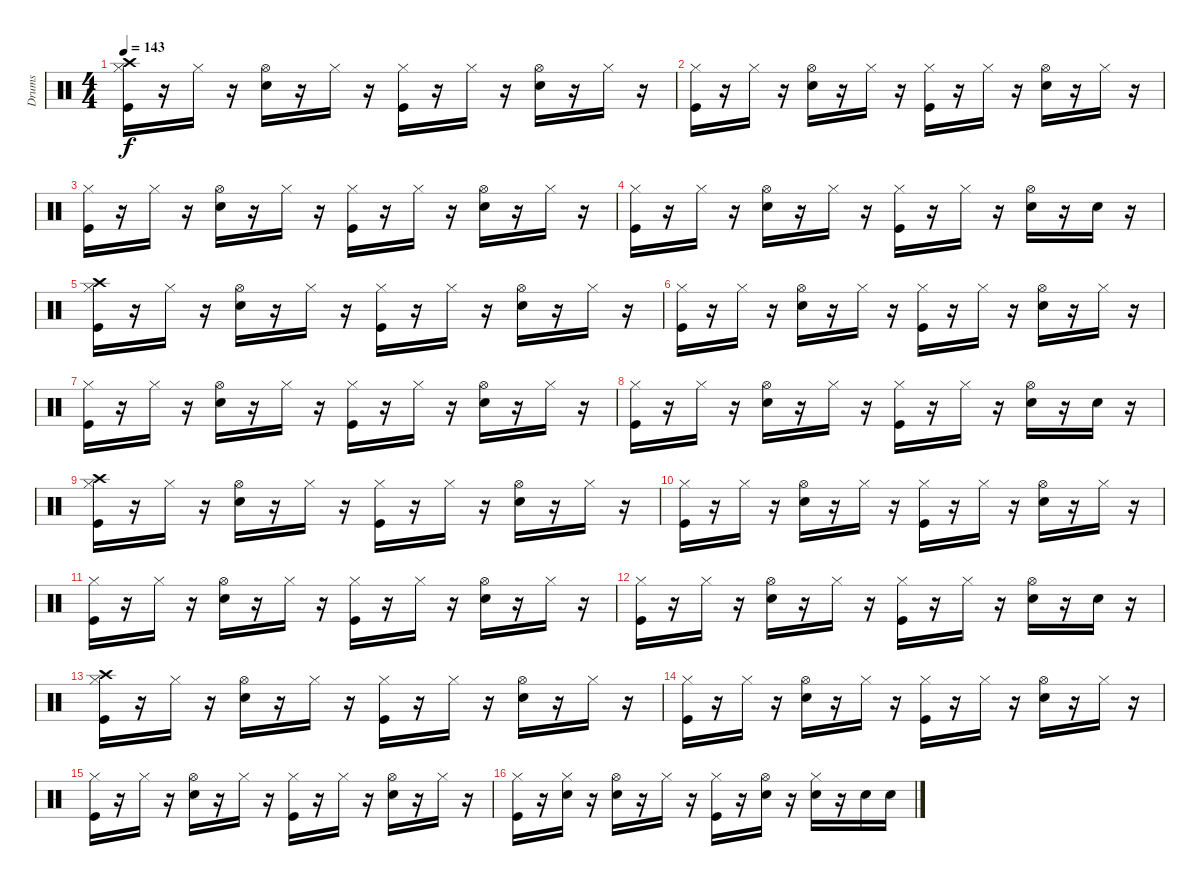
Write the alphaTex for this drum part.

\track ("Drums" "Drums") {instrument percussion}
\staff {score}
\articulation defaults
\ts (4 4)
\tempo 143
\clef neutral
\ks c
("Hi-Hat (closed)" "Kick (hit)" "Crash high (hit)").16{dy f} r.16 "Hi-Hat (closed)".16 r.16 ("Hi-Hat (open)" "Snare (hit) 2").16 r.16 "Hi-Hat (closed)".16 r.16 ("Hi-Hat (closed)" "Kick (hit)").16 r.16 "Hi-Hat (closed)".16 r.16 ("Hi-Hat (open)" "Snare (hit) 2").16 r.16 "Hi-Hat (closed)".16 r.16 |
("Hi-Hat (closed)" "Kick (hit)").16 r.16 "Hi-Hat (closed)".16 r.16 ("Hi-Hat (open)" "Snare (hit) 2").16 r.16 "Hi-Hat (closed)".16 r.16 ("Hi-Hat (closed)" "Kick (hit)").16 r.16 "Hi-Hat (closed)".16 r.16 ("Hi-Hat (open)" "Snare (hit) 2").16 r.16 "Hi-Hat (closed)".16 r.16 |
("Hi-Hat (closed)" "Kick (hit)").16 r.16 "Hi-Hat (closed)".16 r.16 ("Hi-Hat (open)" "Snare (hit) 2").16 r.16 "Hi-Hat (closed)".16 r.16 ("Hi-Hat (closed)" "Kick (hit)").16 r.16 "Hi-Hat (closed)".16 r.16 ("Hi-Hat (open)" "Snare (hit) 2").16 r.16 "Hi-Hat (closed)".16 r.16 |
("Hi-Hat (closed)" "Kick (hit)").16 r.16 "Hi-Hat (closed)".16 r.16 ("Hi-Hat (open)" "Snare (hit) 2").16 r.16 "Hi-Hat (closed)".16 r.16 ("Hi-Hat (closed)" "Kick (hit)").16 r.16 "Hi-Hat (closed)".16 r.16 ("Hi-Hat (open)" "Snare (hit) 2").16 r.16 "Snare (hit) 2".16 r.16 |
("Hi-Hat (closed)" "Kick (hit)" "Crash high (hit)").16 r.16 "Hi-Hat (closed)".16 r.16 ("Hi-Hat (open)" "Snare (hit) 2").16 r.16 "Hi-Hat (closed)".16 r.16 ("Hi-Hat (closed)" "Kick (hit)").16 r.16 "Hi-Hat (closed)".16 r.16 ("Hi-Hat (open)" "Snare (hit) 2").16 r.16 "Hi-Hat (closed)".16 r.16 |
("Hi-Hat (closed)" "Kick (hit)").16 r.16 "Hi-Hat (closed)".16 r.16 ("Hi-Hat (open)" "Snare (hit) 2").16 r.16 "Hi-Hat (closed)".16 r.16 ("Hi-Hat (closed)" "Kick (hit)").16 r.16 "Hi-Hat (closed)".16 r.16 ("Hi-Hat (open)" "Snare (hit) 2").16 r.16 "Hi-Hat (closed)".16 r.16 |
("Hi-Hat (closed)" "Kick (hit)").16 r.16 "Hi-Hat (closed)".16 r.16 ("Hi-Hat (open)" "Snare (hit) 2").16 r.16 "Hi-Hat (closed)".16 r.16 ("Hi-Hat (closed)" "Kick (hit)").16 r.16 "Hi-Hat (closed)".16 r.16 ("Hi-Hat (open)" "Snare (hit) 2").16 r.16 "Hi-Hat (closed)".16 r.16 |
("Hi-Hat (closed)" "Kick (hit)").16 r.16 "Hi-Hat (closed)".16 r.16 ("Hi-Hat (open)" "Snare (hit) 2").16 r.16 "Hi-Hat (closed)".16 r.16 ("Hi-Hat (closed)" "Kick (hit)").16 r.16 "Hi-Hat (closed)".16 r.16 ("Hi-Hat (open)" "Snare (hit) 2").16 r.16 "Snare (hit) 2".16 r.16 |
("Hi-Hat (closed)" "Kick (hit)" "Crash high (hit)").16 r.16 "Hi-Hat (closed)".16 r.16 ("Hi-Hat (open)" "Snare (hit) 2").16 r.16 "Hi-Hat (closed)".16 r.16 ("Hi-Hat (closed)" "Kick (hit)").16 r.16 "Hi-Hat (closed)".16 r.16 ("Hi-Hat (open)" "Snare (hit) 2").16 r.16 "Hi-Hat (closed)".16 r.16 |
("Hi-Hat (closed)" "Kick (hit)").16 r.16 "Hi-Hat (closed)".16 r.16 ("Hi-Hat (open)" "Snare (hit) 2").16 r.16 "Hi-Hat (closed)".16 r.16 ("Hi-Hat (closed)" "Kick (hit)").16 r.16 "Hi-Hat (closed)".16 r.16 ("Hi-Hat (open)" "Snare (hit) 2").16 r.16 "Hi-Hat (closed)".16 r.16 |
("Hi-Hat (closed)" "Kick (hit)").16 r.16 "Hi-Hat (closed)".16 r.16 ("Hi-Hat (open)" "Snare (hit) 2").16 r.16 "Hi-Hat (closed)".16 r.16 ("Hi-Hat (closed)" "Kick (hit)").16 r.16 "Hi-Hat (closed)".16 r.16 ("Hi-Hat (open)" "Snare (hit) 2").16 r.16 "Hi-Hat (closed)".16 r.16 |
("Hi-Hat (closed)" "Kick (hit)").16 r.16 "Hi-Hat (closed)".16 r.16 ("Hi-Hat (open)" "Snare (hit) 2").16 r.16 "Hi-Hat (closed)".16 r.16 ("Hi-Hat (closed)" "Kick (hit)").16 r.16 "Hi-Hat (closed)".16 r.16 ("Hi-Hat (open)" "Snare (hit) 2").16 r.16 "Snare (hit) 2".16 r.16 |
("Hi-Hat (closed)" "Kick (hit)" "Crash high (hit)").16 r.16 "Hi-Hat (closed)".16 r.16 ("Hi-Hat (open)" "Snare (hit) 2").16 r.16 "Hi-Hat (closed)".16 r.16 ("Hi-Hat (closed)" "Kick (hit)").16 r.16 "Hi-Hat (closed)".16 r.16 ("Hi-Hat (open)" "Snare (hit) 2").16 r.16 "Hi-Hat (closed)".16 r.16 |
("Hi-Hat (closed)" "Kick (hit)").16 r.16 "Hi-Hat (closed)".16 r.16 ("Hi-Hat (open)" "Snare (hit) 2").16 r.16 "Hi-Hat (closed)".16 r.16 ("Hi-Hat (closed)" "Kick (hit)").16 r.16 "Hi-Hat (closed)".16 r.16 ("Hi-Hat (open)" "Snare (hit) 2").16 r.16 "Hi-Hat (closed)".16 r.16 |
("Hi-Hat (closed)" "Kick (hit)").16 r.16 "Hi-Hat (closed)".16 r.16 ("Hi-Hat (open)" "Snare (hit) 2").16 r.16 "Hi-Hat (closed)".16 r.16 ("Hi-Hat (closed)" "Kick (hit)").16 r.16 "Hi-Hat (closed)".16 r.16 ("Hi-Hat (open)" "Snare (hit) 2").16 r.16 "Hi-Hat (closed)".16 r.16 |
("Hi-Hat (closed)" "Kick (hit)").16 r.16 ("Hi-Hat (closed)" "Snare (hit) 2").16 r.16 ("Hi-Hat (open)" "Snare (hit) 2").16 r.16 "Hi-Hat (closed)".16 r.16 ("Hi-Hat (closed)" "Kick (hit)").16 r.16 ("Hi-Hat (open)" "Snare (hit) 2").16 r.16 ("Hi-Hat (closed)" "Snare (hit) 2").16 r.16 "Snare (hit) 2".16 "Snare (hit) 2".16
